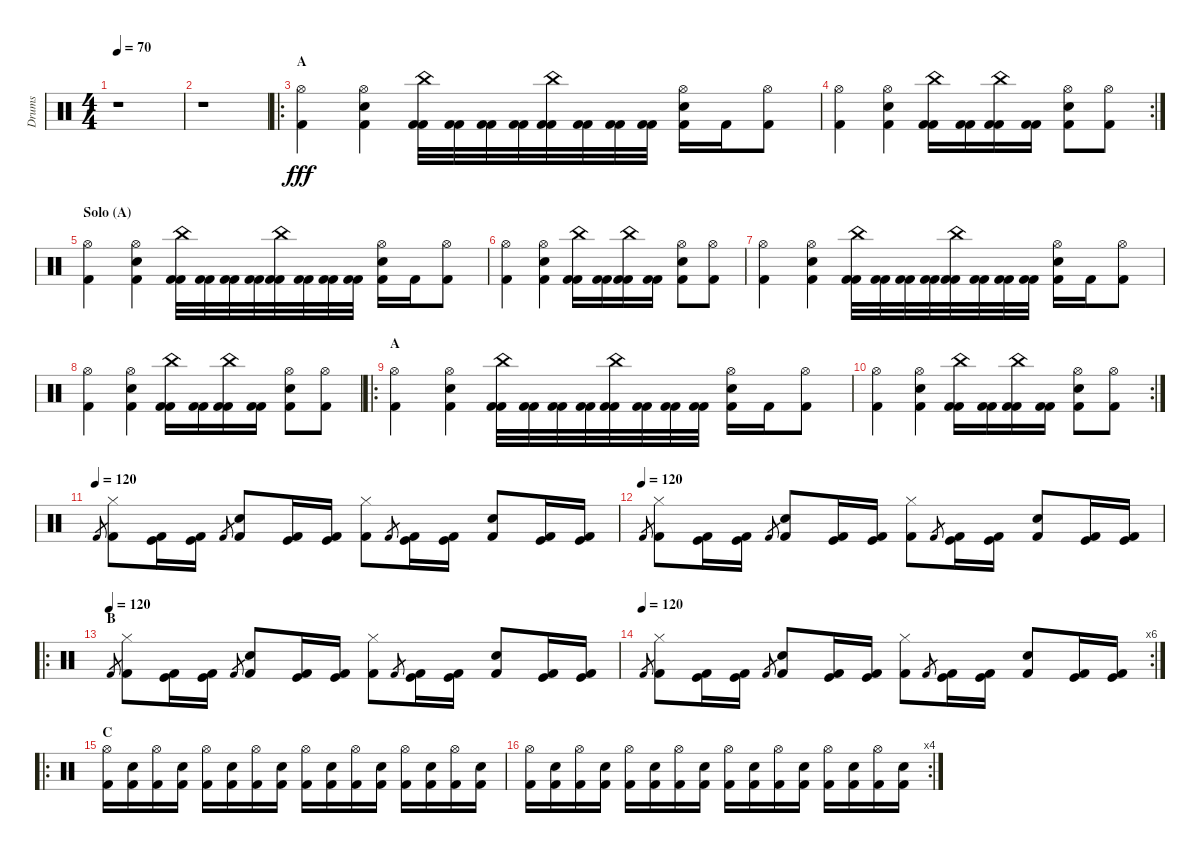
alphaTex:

\track ("Drums" "Drums") {instrument percussion}
\staff {score}
\articulation defaults
\ts (4 4)
\tempo 70
\clef neutral
\ks c
r.1{dy fff} |
r.1 |
\ro
\section ("" "A")
("Hi-Hat (open)" "Kick (hit) 2").4 ("Hi-Hat (open)" "Electric Snare (hit)" "Kick (hit) 2").4 ("China (hit)" "Kick (hit) 2" "Kick (hit) 2").32 ("Kick (hit) 2" "Kick (hit) 2").32 ("Kick (hit) 2" "Kick (hit) 2").32 ("Kick (hit) 2" "Kick (hit) 2").32 ("China (hit)" "Kick (hit) 2" "Kick (hit) 2").32 ("Kick (hit) 2" "Kick (hit) 2").32 ("Kick (hit) 2" "Kick (hit) 2").32 ("Kick (hit) 2" "Kick (hit) 2").32 ("Hi-Hat (open)" "Electric Snare (hit)" "Kick (hit) 2").16 "Kick (hit) 2".16 ("Hi-Hat (open)" "Kick (hit) 2").8 |
\rc 2
("Hi-Hat (open)" "Kick (hit) 2").4 ("Hi-Hat (open)" "Electric Snare (hit)" "Kick (hit) 2").4 ("China (hit)" "Kick (hit) 2" "Kick (hit) 2").16 ("Kick (hit) 2" "Kick (hit) 2").16 ("China (hit)" "Kick (hit) 2" "Kick (hit) 2").16 ("Kick (hit) 2" "Kick (hit) 2").16 ("Hi-Hat (open)" "Electric Snare (hit)" "Kick (hit) 2").8 ("Hi-Hat (open)" "Kick (hit) 2").8 |
\section ("" "Solo (A)")
("Hi-Hat (open)" "Kick (hit) 2").4 ("Hi-Hat (open)" "Electric Snare (hit)" "Kick (hit) 2").4 ("China (hit)" "Kick (hit) 2" "Kick (hit) 2").32 ("Kick (hit) 2" "Kick (hit) 2").32 ("Kick (hit) 2" "Kick (hit) 2").32 ("Kick (hit) 2" "Kick (hit) 2").32 ("China (hit)" "Kick (hit) 2" "Kick (hit) 2").32 ("Kick (hit) 2" "Kick (hit) 2").32 ("Kick (hit) 2" "Kick (hit) 2").32 ("Kick (hit) 2" "Kick (hit) 2").32 ("Hi-Hat (open)" "Electric Snare (hit)" "Kick (hit) 2").16 "Kick (hit) 2".16 ("Hi-Hat (open)" "Kick (hit) 2").8 |
("Hi-Hat (open)" "Kick (hit) 2").4 ("Hi-Hat (open)" "Electric Snare (hit)" "Kick (hit) 2").4 ("China (hit)" "Kick (hit) 2" "Kick (hit) 2").16 ("Kick (hit) 2" "Kick (hit) 2").16 ("China (hit)" "Kick (hit) 2" "Kick (hit) 2").16 ("Kick (hit) 2" "Kick (hit) 2").16 ("Hi-Hat (open)" "Electric Snare (hit)" "Kick (hit) 2").8 ("Hi-Hat (open)" "Kick (hit) 2").8 |
("Hi-Hat (open)" "Kick (hit) 2").4 ("Hi-Hat (open)" "Electric Snare (hit)" "Kick (hit) 2").4 ("China (hit)" "Kick (hit) 2" "Kick (hit) 2").32 ("Kick (hit) 2" "Kick (hit) 2").32 ("Kick (hit) 2" "Kick (hit) 2").32 ("Kick (hit) 2" "Kick (hit) 2").32 ("China (hit)" "Kick (hit) 2" "Kick (hit) 2").32 ("Kick (hit) 2" "Kick (hit) 2").32 ("Kick (hit) 2" "Kick (hit) 2").32 ("Kick (hit) 2" "Kick (hit) 2").32 ("Hi-Hat (open)" "Electric Snare (hit)" "Kick (hit) 2").16 "Kick (hit) 2".16 ("Hi-Hat (open)" "Kick (hit) 2").8 |
("Hi-Hat (open)" "Kick (hit) 2").4 ("Hi-Hat (open)" "Electric Snare (hit)" "Kick (hit) 2").4 ("China (hit)" "Kick (hit) 2" "Kick (hit) 2").16 ("Kick (hit) 2" "Kick (hit) 2").16 ("China (hit)" "Kick (hit) 2" "Kick (hit) 2").16 ("Kick (hit) 2" "Kick (hit) 2").16 ("Hi-Hat (open)" "Electric Snare (hit)" "Kick (hit) 2").8 ("Hi-Hat (open)" "Kick (hit) 2").8 |
\ro
\section ("" "A")
("Hi-Hat (open)" "Kick (hit) 2").4 ("Hi-Hat (open)" "Electric Snare (hit)" "Kick (hit) 2").4 ("China (hit)" "Kick (hit) 2" "Kick (hit) 2").32 ("Kick (hit) 2" "Kick (hit) 2").32 ("Kick (hit) 2" "Kick (hit) 2").32 ("Kick (hit) 2" "Kick (hit) 2").32 ("China (hit)" "Kick (hit) 2" "Kick (hit) 2").32 ("Kick (hit) 2" "Kick (hit) 2").32 ("Kick (hit) 2" "Kick (hit) 2").32 ("Kick (hit) 2" "Kick (hit) 2").32 ("Hi-Hat (open)" "Electric Snare (hit)" "Kick (hit) 2").16 "Kick (hit) 2".16 ("Hi-Hat (open)" "Kick (hit) 2").8 |
\rc 2
("Hi-Hat (open)" "Kick (hit) 2").4 ("Hi-Hat (open)" "Electric Snare (hit)" "Kick (hit) 2").4 ("China (hit)" "Kick (hit) 2" "Kick (hit) 2").16 ("Kick (hit) 2" "Kick (hit) 2").16 ("China (hit)" "Kick (hit) 2" "Kick (hit) 2").16 ("Kick (hit) 2" "Kick (hit) 2").16 ("Hi-Hat (open)" "Electric Snare (hit)" "Kick (hit) 2").8 ("Hi-Hat (open)" "Kick (hit) 2").8 |
\tempo (120)
"Kick (hit) 2".8{gr} ("Hi-Hat (closed)" "Kick (hit) 2").8 ("Kick (hit)" "Kick (hit) 2").16 ("Kick (hit)" "Kick (hit) 2").16 "Kick (hit) 2".8{gr} ("Electric Snare (hit)" "Kick (hit) 2").8 ("Kick (hit)" "Kick (hit) 2").16 ("Kick (hit)" "Kick (hit) 2").16 ("Hi-Hat (closed)" "Kick (hit) 2").8 "Kick (hit) 2".8{gr} ("Kick (hit)" "Kick (hit) 2").16 ("Kick (hit)" "Kick (hit) 2").16 ("Electric Snare (hit)" "Kick (hit) 2").8 ("Kick (hit)" "Kick (hit) 2").16 ("Kick (hit)" "Kick (hit) 2").16 |
\tempo (120)
"Kick (hit) 2".8{gr} ("Hi-Hat (closed)" "Kick (hit) 2").8 ("Kick (hit)" "Kick (hit) 2").16 ("Kick (hit)" "Kick (hit) 2").16 "Kick (hit) 2".8{gr} ("Electric Snare (hit)" "Kick (hit) 2").8 ("Kick (hit)" "Kick (hit) 2").16 ("Kick (hit)" "Kick (hit) 2").16 ("Hi-Hat (closed)" "Kick (hit) 2").8 "Kick (hit) 2".8{gr} ("Kick (hit)" "Kick (hit) 2").16 ("Kick (hit)" "Kick (hit) 2").16 ("Electric Snare (hit)" "Kick (hit) 2").8 ("Kick (hit)" "Kick (hit) 2").16 ("Kick (hit)" "Kick (hit) 2").16 |
\ro
\section ("" "B")
\tempo (120)
"Kick (hit) 2".8{gr} ("Hi-Hat (closed)" "Kick (hit) 2").8 ("Kick (hit)" "Kick (hit) 2").16 ("Kick (hit)" "Kick (hit) 2").16 "Kick (hit) 2".8{gr} ("Electric Snare (hit)" "Kick (hit) 2").8 ("Kick (hit)" "Kick (hit) 2").16 ("Kick (hit)" "Kick (hit) 2").16 ("Hi-Hat (closed)" "Kick (hit) 2").8 "Kick (hit) 2".8{gr} ("Kick (hit)" "Kick (hit) 2").16 ("Kick (hit)" "Kick (hit) 2").16 ("Electric Snare (hit)" "Kick (hit) 2").8 ("Kick (hit)" "Kick (hit) 2").16 ("Kick (hit)" "Kick (hit) 2").16 |
\rc 6
\tempo (120)
"Kick (hit) 2".8{gr} ("Hi-Hat (closed)" "Kick (hit) 2").8 ("Kick (hit)" "Kick (hit) 2").16 ("Kick (hit)" "Kick (hit) 2").16 "Kick (hit) 2".8{gr} ("Electric Snare (hit)" "Kick (hit) 2").8 ("Kick (hit)" "Kick (hit) 2").16 ("Kick (hit)" "Kick (hit) 2").16 ("Hi-Hat (closed)" "Kick (hit) 2").8 "Kick (hit) 2".8{gr} ("Kick (hit)" "Kick (hit) 2").16 ("Kick (hit)" "Kick (hit) 2").16 ("Electric Snare (hit)" "Kick (hit) 2").8 ("Kick (hit)" "Kick (hit) 2").16 ("Kick (hit)" "Kick (hit) 2").16 |
\ro
\section ("" "C")
("Hi-Hat (open)" "Kick (hit) 2").16 ("Electric Snare (hit)" "Kick (hit) 2").16 ("Hi-Hat (open)" "Kick (hit) 2").16 ("Electric Snare (hit)" "Kick (hit) 2").16 ("Hi-Hat (open)" "Kick (hit) 2").16 ("Electric Snare (hit)" "Kick (hit) 2").16 ("Hi-Hat (open)" "Kick (hit) 2").16 ("Electric Snare (hit)" "Kick (hit) 2").16 ("Hi-Hat (open)" "Kick (hit) 2").16 ("Electric Snare (hit)" "Kick (hit) 2").16 ("Hi-Hat (open)" "Kick (hit) 2").16 ("Electric Snare (hit)" "Kick (hit) 2").16 ("Hi-Hat (open)" "Kick (hit) 2").16 ("Electric Snare (hit)" "Kick (hit) 2").16 ("Hi-Hat (open)" "Kick (hit) 2").16 ("Electric Snare (hit)" "Kick (hit) 2").16 |
\rc 4
("Hi-Hat (open)" "Kick (hit) 2").16 ("Electric Snare (hit)" "Kick (hit) 2").16 ("Hi-Hat (open)" "Kick (hit) 2").16 ("Electric Snare (hit)" "Kick (hit) 2").16 ("Hi-Hat (open)" "Kick (hit) 2").16 ("Electric Snare (hit)" "Kick (hit) 2").16 ("Hi-Hat (open)" "Kick (hit) 2").16 ("Electric Snare (hit)" "Kick (hit) 2").16 ("Hi-Hat (open)" "Kick (hit) 2").16 ("Electric Snare (hit)" "Kick (hit) 2").16 ("Hi-Hat (open)" "Kick (hit) 2").16 ("Electric Snare (hit)" "Kick (hit) 2").16 ("Hi-Hat (open)" "Kick (hit) 2").16 ("Electric Snare (hit)" "Kick (hit) 2").16 ("Hi-Hat (open)" "Kick (hit) 2").16 ("Electric Snare (hit)" "Kick (hit) 2").16
